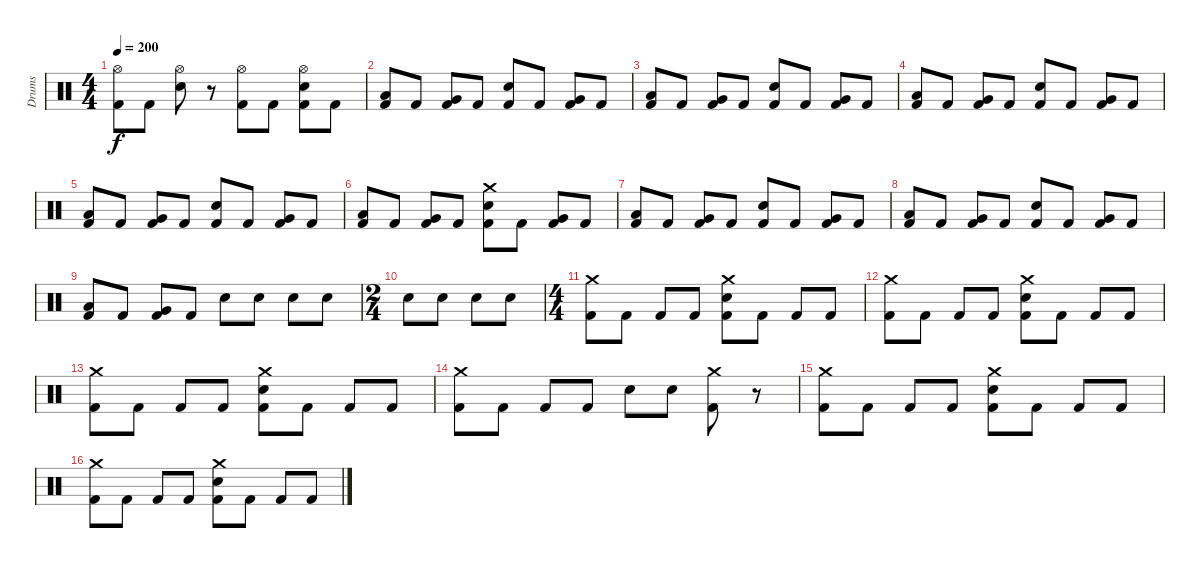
\track ("Drums" "Drums") {instrument percussion}
\staff {score}
\articulation defaults
\ts (4 4)
\tempo 200
\clef neutral
\ks c
("Hi-Hat (open)" "Kick (hit) 2").8{dy f} "Kick (hit) 2".8 ("Hi-Hat (open)" "Snare (hit) 2").8 r.8 ("Hi-Hat (open)" "Kick (hit) 2").8 "Kick (hit) 2".8 ("Hi-Hat (open)" "Snare (hit) 2" "Kick (hit) 2").8 "Kick (hit) 2".8 |
("Low Tom (hit)" "Kick (hit) 2").8 "Kick (hit) 2".8 ("Very Low Tom (hit)" "Kick (hit) 2").8 "Kick (hit) 2".8 ("Snare (hit) 2" "Kick (hit) 2").8 "Kick (hit) 2".8 ("Very Low Tom (hit)" "Kick (hit) 2").8 "Kick (hit) 2".8 |
("Low Tom (hit)" "Kick (hit) 2").8 "Kick (hit) 2".8 ("Very Low Tom (hit)" "Kick (hit) 2").8 "Kick (hit) 2".8 ("Snare (hit) 2" "Kick (hit) 2").8 "Kick (hit) 2".8 ("Very Low Tom (hit)" "Kick (hit) 2").8 "Kick (hit) 2".8 |
("Low Tom (hit)" "Kick (hit) 2").8 "Kick (hit) 2".8 ("Very Low Tom (hit)" "Kick (hit) 2").8 "Kick (hit) 2".8 ("Snare (hit) 2" "Kick (hit) 2").8 "Kick (hit) 2".8 ("Very Low Tom (hit)" "Kick (hit) 2").8 "Kick (hit) 2".8 |
("Low Tom (hit)" "Kick (hit) 2").8 "Kick (hit) 2".8 ("Very Low Tom (hit)" "Kick (hit) 2").8 "Kick (hit) 2".8 ("Snare (hit) 2" "Kick (hit) 2").8 "Kick (hit) 2".8 ("Very Low Tom (hit)" "Kick (hit) 2").8 "Kick (hit) 2".8 |
("Low Tom (hit)" "Kick (hit) 2").8 "Kick (hit) 2".8 ("Very Low Tom (hit)" "Kick (hit) 2").8 "Kick (hit) 2".8 ("Crash medium (hit)" "Snare (hit) 2" "Kick (hit) 2").8 "Kick (hit) 2".8 ("Very Low Tom (hit)" "Kick (hit) 2").8 "Kick (hit) 2".8 |
("Low Tom (hit)" "Kick (hit) 2").8 "Kick (hit) 2".8 ("Very Low Tom (hit)" "Kick (hit) 2").8 "Kick (hit) 2".8 ("Snare (hit) 2" "Kick (hit) 2").8 "Kick (hit) 2".8 ("Very Low Tom (hit)" "Kick (hit) 2").8 "Kick (hit) 2".8 |
("Low Tom (hit)" "Kick (hit) 2").8 "Kick (hit) 2".8 ("Very Low Tom (hit)" "Kick (hit) 2").8 "Kick (hit) 2".8 ("Snare (hit) 2" "Kick (hit) 2").8 "Kick (hit) 2".8 ("Very Low Tom (hit)" "Kick (hit) 2").8 "Kick (hit) 2".8 |
("Low Tom (hit)" "Kick (hit) 2").8 "Kick (hit) 2".8 ("Very Low Tom (hit)" "Kick (hit) 2").8 "Kick (hit) 2".8 "Snare (hit) 2".8 "Snare (hit) 2".8 "Snare (hit) 2".8 "Snare (hit) 2".8 |
\ts (2 4)
"Snare (hit) 2".8 "Snare (hit) 2".8 "Snare (hit) 2".8 "Snare (hit) 2".8 |
\ts (4 4)
("Crash medium (hit)" "Kick (hit) 2").8 "Kick (hit) 2".8 "Kick (hit) 2".8 "Kick (hit) 2".8 ("Crash medium (hit)" "Snare (hit) 2" "Kick (hit) 2").8 "Kick (hit) 2".8 "Kick (hit) 2".8 "Kick (hit) 2".8 |
("Crash medium (hit)" "Kick (hit) 2").8 "Kick (hit) 2".8 "Kick (hit) 2".8 "Kick (hit) 2".8 ("Crash medium (hit)" "Snare (hit) 2" "Kick (hit) 2").8 "Kick (hit) 2".8 "Kick (hit) 2".8 "Kick (hit) 2".8 |
("Crash medium (hit)" "Kick (hit) 2").8 "Kick (hit) 2".8 "Kick (hit) 2".8 "Kick (hit) 2".8 ("Crash medium (hit)" "Snare (hit) 2" "Kick (hit) 2").8 "Kick (hit) 2".8 "Kick (hit) 2".8 "Kick (hit) 2".8 |
("Crash medium (hit)" "Kick (hit) 2").8 "Kick (hit) 2".8 "Kick (hit) 2".8 "Kick (hit) 2".8 "Snare (hit) 2".8 "Snare (hit) 2".8 ("Crash medium (hit)" "Kick (hit) 2").8 r.8 |
("Crash medium (hit)" "Kick (hit) 2").8 "Kick (hit) 2".8 "Kick (hit) 2".8 "Kick (hit) 2".8 ("Crash medium (hit)" "Snare (hit) 2" "Kick (hit) 2").8 "Kick (hit) 2".8 "Kick (hit) 2".8 "Kick (hit) 2".8 |
("Crash medium (hit)" "Kick (hit) 2").8 "Kick (hit) 2".8 "Kick (hit) 2".8 "Kick (hit) 2".8 ("Crash medium (hit)" "Snare (hit) 2" "Kick (hit) 2").8 "Kick (hit) 2".8 "Kick (hit) 2".8 "Kick (hit) 2".8
